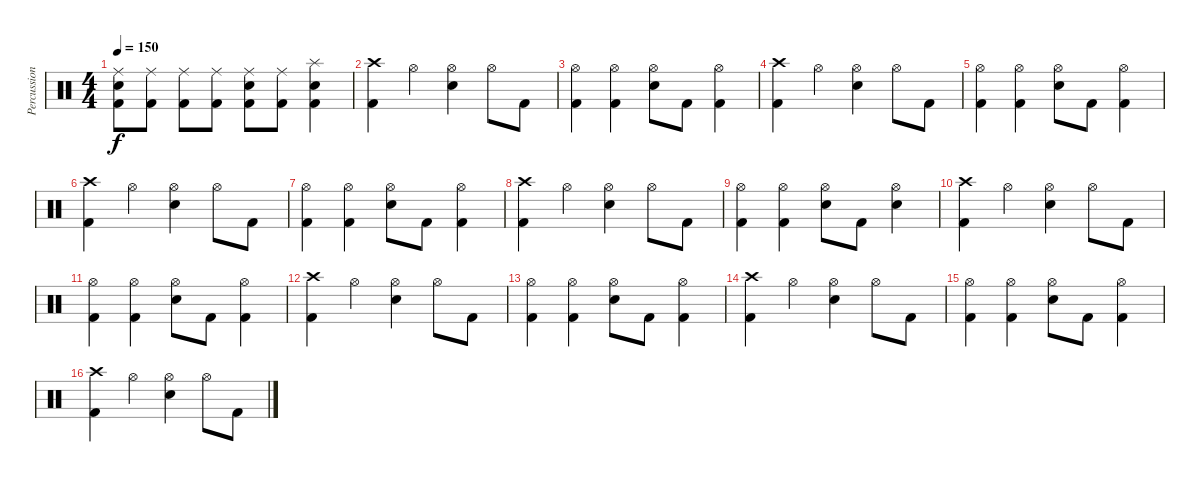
\track ("Percussion" "Percussion") {instrument percussion}
\staff {score}
\articulation defaults
\ts (4 4)
\tempo 150
\clef neutral
\ks c
("Ride (middle)" "Snare (hit) 2" "Kick (hit) 2").8{dy f} ("Ride (middle)" "Kick (hit) 2").8 ("Ride (middle)" "Kick (hit) 2").8 ("Ride (middle)" "Kick (hit) 2").8 ("Ride (middle)" "Snare (hit) 2" "Kick (hit) 2").8 ("Ride (middle)" "Kick (hit) 2").8 ("Splash (hit)" "Snare (hit) 2" "Kick (hit) 2").4 |
("Crash high (hit)" "Kick (hit) 2").4 "Hi-Hat (open)".4 ("Hi-Hat (open)" "Snare (hit) 2").4 "Hi-Hat (open)".8 "Kick (hit) 2".8 |
("Hi-Hat (open)" "Kick (hit) 2").4 ("Hi-Hat (open)" "Kick (hit) 2").4 ("Hi-Hat (open)" "Snare (hit) 2").8 "Kick (hit) 2".8 ("Hi-Hat (open)" "Kick (hit) 2").4 |
("Crash high (hit)" "Kick (hit) 2").4 "Hi-Hat (open)".4 ("Hi-Hat (open)" "Snare (hit) 2").4 "Hi-Hat (open)".8 "Kick (hit) 2".8 |
("Hi-Hat (open)" "Kick (hit) 2").4 ("Hi-Hat (open)" "Kick (hit) 2").4 ("Hi-Hat (open)" "Snare (hit) 2").8 "Kick (hit) 2".8 ("Hi-Hat (open)" "Kick (hit) 2").4 |
("Crash high (hit)" "Kick (hit) 2").4 "Hi-Hat (open)".4 ("Hi-Hat (open)" "Snare (hit) 2").4 "Hi-Hat (open)".8 "Kick (hit) 2".8 |
("Hi-Hat (open)" "Kick (hit) 2").4 ("Hi-Hat (open)" "Kick (hit) 2").4 ("Hi-Hat (open)" "Snare (hit) 2").8 "Kick (hit) 2".8 ("Hi-Hat (open)" "Kick (hit) 2").4 |
("Crash high (hit)" "Kick (hit) 2").4 "Hi-Hat (open)".4 ("Hi-Hat (open)" "Snare (hit) 2").4 "Hi-Hat (open)".8 "Kick (hit) 2".8 |
("Hi-Hat (open)" "Kick (hit) 2").4 ("Hi-Hat (open)" "Kick (hit) 2").4 ("Hi-Hat (open)" "Snare (hit) 2").8 "Kick (hit) 2".8 ("Hi-Hat (open)" "Snare (hit) 2").4 |
("Crash high (hit)" "Kick (hit) 2").4 "Hi-Hat (open)".4 ("Hi-Hat (open)" "Snare (hit) 2").4 "Hi-Hat (open)".8 "Kick (hit) 2".8 |
("Hi-Hat (open)" "Kick (hit) 2").4 ("Hi-Hat (open)" "Kick (hit) 2").4 ("Hi-Hat (open)" "Snare (hit) 2").8 "Kick (hit) 2".8 ("Hi-Hat (open)" "Kick (hit) 2").4 |
("Crash high (hit)" "Kick (hit) 2").4 "Hi-Hat (open)".4 ("Hi-Hat (open)" "Snare (hit) 2").4 "Hi-Hat (open)".8 "Kick (hit) 2".8 |
("Hi-Hat (open)" "Kick (hit) 2").4 ("Hi-Hat (open)" "Kick (hit) 2").4 ("Hi-Hat (open)" "Snare (hit) 2").8 "Kick (hit) 2".8 ("Hi-Hat (open)" "Kick (hit) 2").4 |
("Crash high (hit)" "Kick (hit) 2").4 "Hi-Hat (open)".4 ("Hi-Hat (open)" "Snare (hit) 2").4 "Hi-Hat (open)".8 "Kick (hit) 2".8 |
("Hi-Hat (open)" "Kick (hit) 2").4 ("Hi-Hat (open)" "Kick (hit) 2").4 ("Hi-Hat (open)" "Snare (hit) 2").8 "Kick (hit) 2".8 ("Hi-Hat (open)" "Kick (hit) 2").4 |
("Crash high (hit)" "Kick (hit) 2").4 "Hi-Hat (open)".4 ("Hi-Hat (open)" "Snare (hit) 2").4 "Hi-Hat (open)".8 "Kick (hit) 2".8
